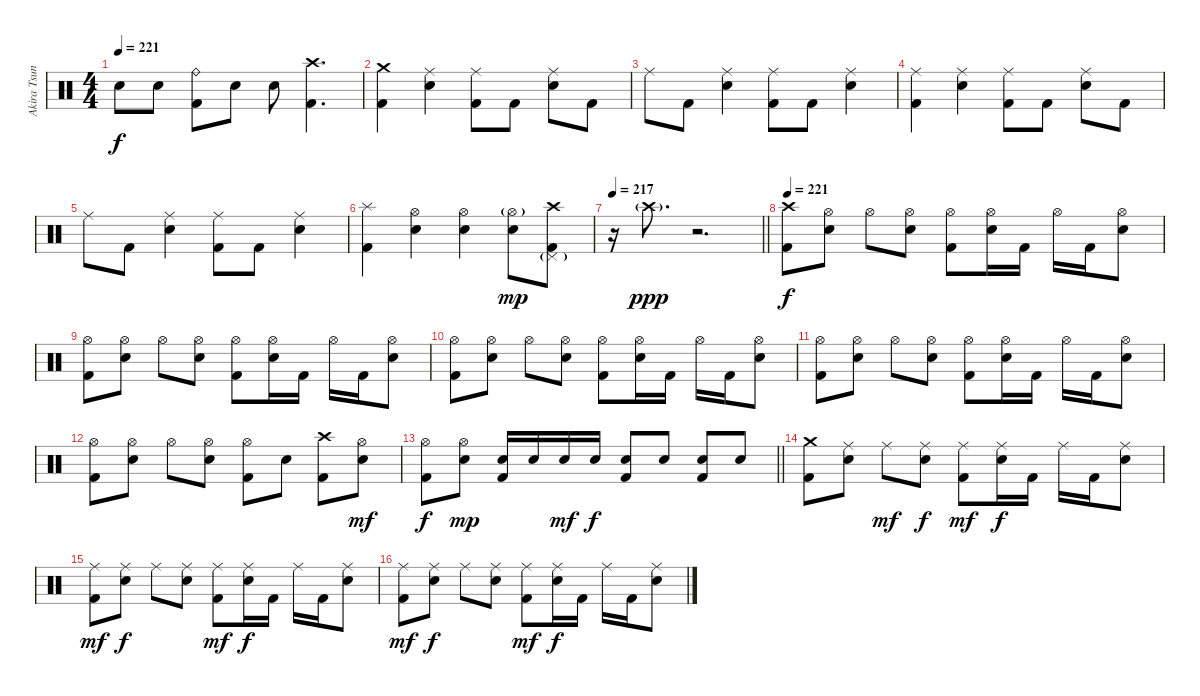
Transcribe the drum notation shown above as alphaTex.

\track ("Akira Tsuneoka" "Akira Tsun") {instrument percussion}
\staff {score}
\articulation defaults
\ts (4 4)
\tempo 221
\clef neutral
\ks c "Electric Snare (hit)".8{dy f} "Electric Snare (hit)".8
("Ride (bell)" "Kick (hit) 2").8 "Electric Snare (hit)".8 "Electric Snare (hit)".8 ("Crash high (hit)" "Kick (hit) 2").4{d} |
("Crash medium (hit)" "Kick (hit) 2").4 ("Ride (middle)" "Electric Snare (hit)").4 ("Ride (middle)" "Kick (hit) 2").8 "Kick (hit) 2".8 ("Ride (middle)" "Electric Snare (hit)").8 "Kick (hit) 2".8 |
"Ride (middle)".8 "Kick (hit) 2".8 ("Ride (middle)" "Electric Snare (hit)").4 ("Ride (middle)" "Kick (hit) 2").8 "Kick (hit) 2".8 ("Ride (middle)" "Electric Snare (hit)").4 |
("Ride (middle)" "Kick (hit) 2").4 ("Ride (middle)" "Electric Snare (hit)").4 ("Ride (middle)" "Kick (hit) 2").8 "Kick (hit) 2".8 ("Ride (middle)" "Electric Snare (hit)").8 "Kick (hit) 2".8 |
"Ride (middle)".8 "Kick (hit) 2".8 ("Ride (middle)" "Electric Snare (hit)").4 ("Ride (middle)" "Kick (hit) 2").8 "Kick (hit) 2".8 ("Ride (middle)" "Electric Snare (hit)").4 |
("Splash (hit)" "Kick (hit) 2").4 ("Hi-Hat (open)" "Electric Snare (hit)").4 ("Hi-Hat (open)" "Electric Snare (hit)").4 ("Hi-Hat (open)"{g} "Electric Snare (hit)").8{dy mp} ("Pedal Hi-Hat (hit)"{g} "Crash high (hit)" "Kick (hit) 2").8 |
\tempo 217
\barLineRight lightlight
r.16 "Crash high (hit)"{g}.8{d dy ppp} r.2{d} |
\section ("" "")
\tempo 221
("Crash high (hit)" "Kick (hit) 2").8{dy f} ("Hi-Hat (open)" "Electric Snare (hit)").8 "Hi-Hat (open)".8 ("Hi-Hat (open)" "Electric Snare (hit)").8 ("Hi-Hat (open)" "Kick (hit) 2").8 ("Hi-Hat (open)" "Electric Snare (hit)").16 "Kick (hit) 2".16 "Hi-Hat (open)".16 "Kick (hit) 2".16 ("Hi-Hat (open)" "Electric Snare (hit)").8 |
("Hi-Hat (open)" "Kick (hit) 2").8 ("Hi-Hat (open)" "Electric Snare (hit)").8 "Hi-Hat (open)".8 ("Hi-Hat (open)" "Electric Snare (hit)").8 ("Hi-Hat (open)" "Kick (hit) 2").8 ("Hi-Hat (open)" "Electric Snare (hit)").16 "Kick (hit) 2".16 "Hi-Hat (open)".16 "Kick (hit) 2".16 ("Hi-Hat (open)" "Electric Snare (hit)").8 |
("Hi-Hat (open)" "Kick (hit) 2").8 ("Hi-Hat (open)" "Electric Snare (hit)").8 "Hi-Hat (open)".8 ("Hi-Hat (open)" "Electric Snare (hit)").8 ("Hi-Hat (open)" "Kick (hit) 2").8 ("Hi-Hat (open)" "Electric Snare (hit)").16 "Kick (hit) 2".16 "Hi-Hat (open)".16 "Kick (hit) 2".16 ("Hi-Hat (open)" "Electric Snare (hit)").8 |
("Hi-Hat (open)" "Kick (hit) 2").8 ("Hi-Hat (open)" "Electric Snare (hit)").8 "Hi-Hat (open)".8 ("Hi-Hat (open)" "Electric Snare (hit)").8 ("Hi-Hat (open)" "Kick (hit) 2").8 ("Hi-Hat (open)" "Electric Snare (hit)").16 "Kick (hit) 2".16 "Hi-Hat (open)".16 "Kick (hit) 2".16 ("Hi-Hat (open)" "Electric Snare (hit)").8 |
("Hi-Hat (open)" "Kick (hit) 2").8 ("Hi-Hat (open)" "Electric Snare (hit)").8 "Hi-Hat (open)".8 ("Hi-Hat (open)" "Electric Snare (hit)").8 ("Hi-Hat (open)" "Kick (hit) 2").8 "Electric Snare (hit)".8 ("Crash high (hit)" "Kick (hit) 2").8 ("Hi-Hat (open)" "Electric Snare (hit)").8{dy mf} |
\barLineRight lightlight
("Hi-Hat (open)" "Kick (hit) 2").8{dy f} ("Hi-Hat (open)" "Electric Snare (hit)").8{dy mp} ("Electric Snare (hit)" "Kick (hit) 2").16 "Electric Snare (hit)".16 "Electric Snare (hit)".16{dy mf} "Electric Snare (hit)".16{dy f} ("Electric Snare (hit)" "Kick (hit) 2").8 "Electric Snare (hit)".8 ("Electric Snare (hit)" "Kick (hit) 2").8 "Electric Snare (hit)".8 |
\section ("" "")
("Crash medium (hit)" "Kick (hit) 2").8 ("Ride (middle)" "Electric Snare (hit)").8 "Ride (middle)".8{dy mf} ("Ride (middle)" "Electric Snare (hit)").8{dy f} ("Ride (middle)" "Kick (hit) 2").8{dy mf} ("Ride (middle)" "Electric Snare (hit)").16{dy f} "Kick (hit) 2".16 "Ride (middle)".16 "Kick (hit) 2".16 ("Ride (middle)" "Electric Snare (hit)").8 |
("Ride (middle)" "Kick (hit) 2").8{dy mf} ("Ride (middle)" "Electric Snare (hit)").8{dy f} "Ride (middle)".8 ("Ride (middle)" "Electric Snare (hit)").8 ("Ride (middle)" "Kick (hit) 2").8{dy mf} ("Ride (middle)" "Electric Snare (hit)").16{dy f} "Kick (hit) 2".16 "Ride (middle)".16 "Kick (hit) 2".16 ("Ride (middle)" "Electric Snare (hit)").8 |
("Ride (middle)" "Kick (hit) 2").8{dy mf} ("Ride (middle)" "Electric Snare (hit)").8{dy f} "Ride (middle)".8 ("Ride (middle)" "Electric Snare (hit)").8 ("Ride (middle)" "Kick (hit) 2").8{dy mf} ("Ride (middle)" "Electric Snare (hit)").16{dy f} "Kick (hit) 2".16 "Ride (middle)".16 "Kick (hit) 2".16 ("Ride (middle)" "Electric Snare (hit)").8
